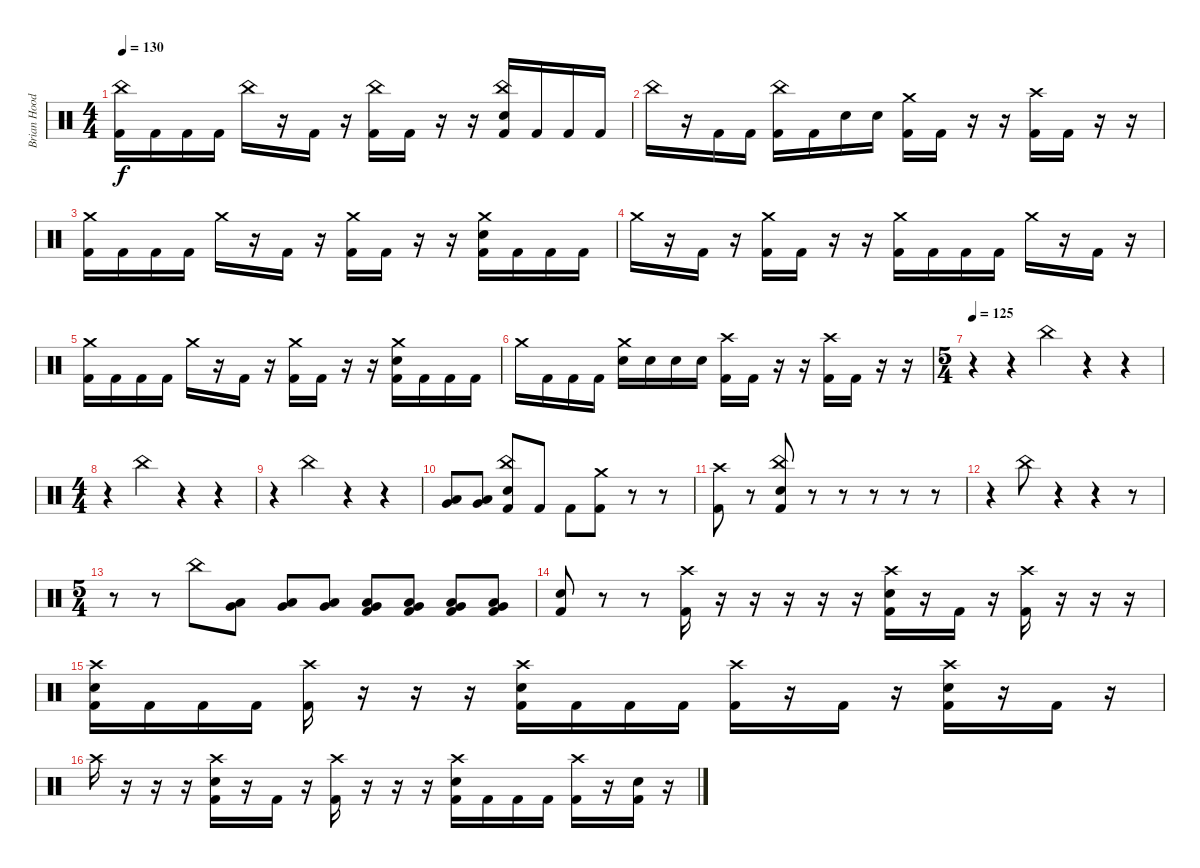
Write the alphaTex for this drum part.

\track ("Brian Hood " "Brian Hood") {instrument percussion}
\staff {score}
\articulation defaults
\ts (4 4)
\tempo 130
\clef neutral
\ks c
("Kick (hit) 2" "China (hit)").16{dy f} "Kick (hit) 2".16 "Kick (hit) 2".16 "Kick (hit) 2".16 "China (hit)".16 r.16 "Kick (hit) 2".16 r.16 ("Kick (hit) 2" "China (hit)").16 "Kick (hit) 2".16 r.16 r.16 ("Kick (hit) 2" "Electric Snare (hit)" "China (hit)").16 "Kick (hit) 2".16 "Kick (hit) 2".16 "Kick (hit) 2".16 |
"China (hit)".16 r.16 "Kick (hit) 2".16 "Kick (hit) 2".16 ("Kick (hit) 2" "China (hit)").16 "Kick (hit) 2".16 "Electric Snare (hit)".16 "Electric Snare (hit)".16 ("Kick (hit) 2" "Crash medium (hit)").16 "Kick (hit) 2".16 r.16 r.16 ("Kick (hit) 2" "Crash high (hit)").16 "Kick (hit) 2".16 r.16 r.16 |
("Kick (hit) 2" "Crash medium (hit)").16 "Kick (hit) 2".16 "Kick (hit) 2".16 "Kick (hit) 2".16 "Crash medium (hit)".16 r.16 "Kick (hit) 2".16 r.16 ("Kick (hit) 2" "Crash medium (hit)").16 "Kick (hit) 2".16 r.16 r.16 ("Kick (hit) 2" "Electric Snare (hit)" "Crash medium (hit)").16 "Kick (hit) 2".16 "Kick (hit) 2".16 "Kick (hit) 2".16 |
"Crash medium (hit)".16 r.16 "Kick (hit) 2".16 r.16 ("Kick (hit) 2" "Crash medium (hit)").16 "Kick (hit) 2".16 r.16 r.16 ("Kick (hit) 2" "Crash medium (hit)").16 "Kick (hit) 2".16 "Kick (hit) 2".16 "Kick (hit) 2".16 "Crash medium (hit)".16 r.16 "Kick (hit) 2".16 r.16 |
("Kick (hit) 2" "Crash medium (hit)").16 "Kick (hit) 2".16 "Kick (hit) 2".16 "Kick (hit) 2".16 "Crash medium (hit)".16 r.16 "Kick (hit) 2".16 r.16 ("Kick (hit) 2" "Crash medium (hit)").16 "Kick (hit) 2".16 r.16 r.16 ("Kick (hit) 2" "Electric Snare (hit)" "Crash medium (hit)").16 "Kick (hit) 2".16 "Kick (hit) 2".16 "Kick (hit) 2".16 |
"Crash medium (hit)".16 "Kick (hit) 2".16 "Kick (hit) 2".16 "Kick (hit) 2".16 ("Electric Snare (hit)" "Crash medium (hit)").16 "Electric Snare (hit)".16 "Electric Snare (hit)".16 "Electric Snare (hit)".16 ("Kick (hit) 2" "Crash high (hit)").16 "Kick (hit) 2".16 r.16 r.16 ("Kick (hit) 2" "Crash high (hit)").16 "Kick (hit) 2".16 r.16 r.16 |
\ts (5 4)
\tempo 125
r.4 r.4 "China (hit)".4 r.4 r.4 |
\ts (4 4)
r.4 "China (hit)".4 r.4 r.4 |
r.4 "China (hit)".4 r.4 r.4 |
("Low Tom (hit)" "Very Low Tom (hit)").8 ("Low Tom (hit)" "Very Low Tom (hit)").8 ("Kick (hit) 2" "Electric Snare (hit)" "China (hit)").8 "Kick (hit) 2".8 "Kick (hit) 2".8 ("Kick (hit) 2" "Crash medium (hit)").8 r.8 r.8 |
("Kick (hit) 2" "Crash high (hit)").8 r.8 ("Kick (hit) 2" "Electric Snare (hit)" "China (hit)").8 r.8 r.8 r.8 r.8 r.8 |
r.4 "China (hit)".8 r.4 r.4 r.8 |
\ts (5 4)
r.8 r.8 "China (hit)".8 ("Low Tom (hit)" "Very Low Tom (hit)").8 ("Low Tom (hit)" "Very Low Tom (hit)").8 ("Low Tom (hit)" "Very Low Tom (hit)").8 ("Kick (hit) 2" "Low Tom (hit)" "Very Low Tom (hit)").8 ("Kick (hit) 2" "Low Tom (hit)" "Very Low Tom (hit)").8 ("Kick (hit) 2" "Low Tom (hit)" "Very Low Tom (hit)").8 ("Kick (hit) 2" "Low Tom (hit)" "Very Low Tom (hit)").8 |
("Kick (hit) 2" "Electric Snare (hit)").8 r.8 r.8 ("Kick (hit) 2" "Crash high (hit)").16 r.16 r.16 r.16 r.16 r.16 ("Kick (hit) 2" "Electric Snare (hit)" "Crash high (hit)").16 r.16 "Kick (hit) 2".16 r.16 ("Kick (hit) 2" "Crash high (hit)").16 r.16 r.16 r.16 |
("Kick (hit) 2" "Electric Snare (hit)" "Crash high (hit)").16 "Kick (hit) 2".16 "Kick (hit) 2".16 "Kick (hit) 2".16 ("Kick (hit) 2" "Crash high (hit)").16 r.16 r.16 r.16 ("Kick (hit) 2" "Electric Snare (hit)" "Crash high (hit)").16 "Kick (hit) 2".16 "Kick (hit) 2".16 "Kick (hit) 2".16 ("Kick (hit) 2" "Crash high (hit)").16 r.16 "Kick (hit) 2".16 r.16 ("Kick (hit) 2" "Electric Snare (hit)" "Crash high (hit)").16 r.16 "Kick (hit) 2".16 r.16 |
"Crash high (hit)".16 r.16 r.16 r.16 ("Kick (hit) 2" "Electric Snare (hit)" "Crash high (hit)").16 r.16 "Kick (hit) 2".16 r.16 ("Kick (hit) 2" "Crash high (hit)").16 r.16 r.16 r.16 ("Kick (hit) 2" "Electric Snare (hit)" "Crash high (hit)").16 "Kick (hit) 2".16 "Kick (hit) 2".16 "Kick (hit) 2".16 ("Kick (hit) 2" "Crash high (hit)").16 r.16 ("Kick (hit) 2" "Electric Snare (hit)").16 r.16
